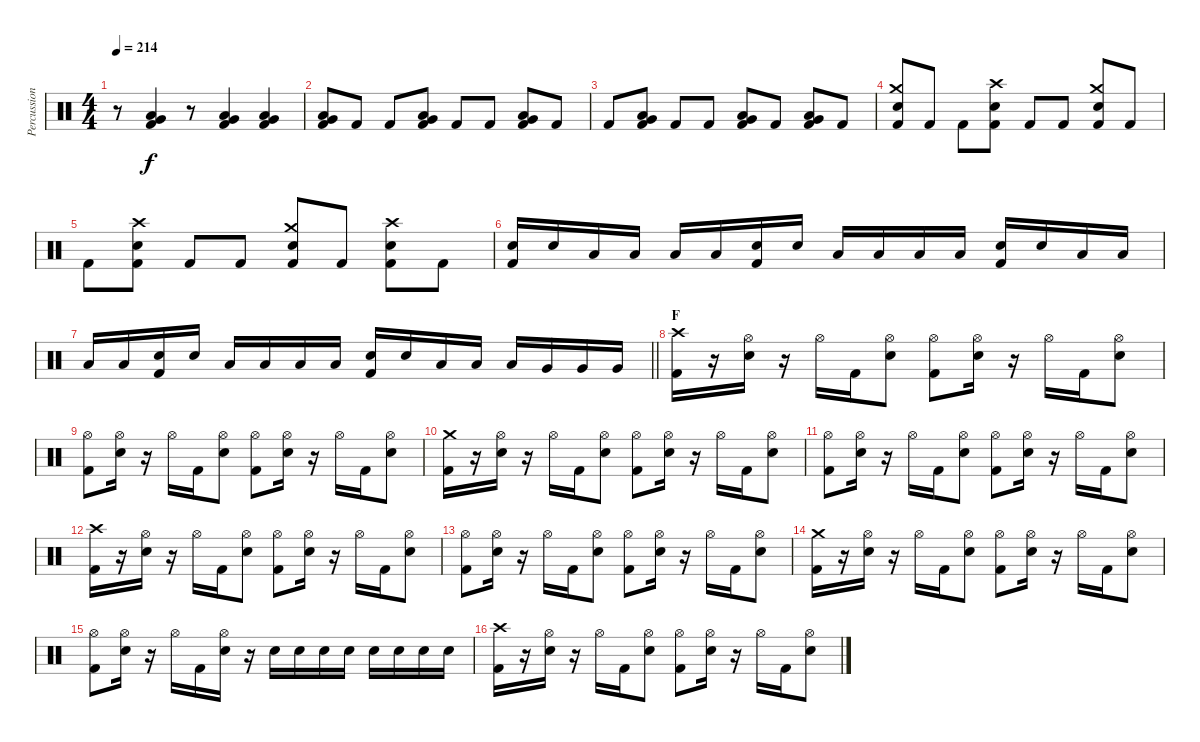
\track ("Percussion" "Percussion") {instrument percussion}
\staff {score}
\articulation defaults
\ts (4 4)
\tempo 214
\clef neutral
\ks c
r.8{dy f} ("Low Tom (hit)" "Very Low Tom (hit)" "Kick (hit) 2").4 r.8 ("Low Tom (hit)" "Very Low Tom (hit)" "Kick (hit) 2").4 ("Low Tom (hit)" "Very Low Tom (hit)" "Kick (hit) 2").4 |
("Low Tom (hit)" "Very Low Tom (hit)" "Kick (hit) 2").8 "Kick (hit) 2".8 "Kick (hit) 2".8 ("Low Tom (hit)" "Very Low Tom (hit)" "Kick (hit) 2").8 "Kick (hit) 2".8 "Kick (hit) 2".8 ("Low Tom (hit)" "Very Low Tom (hit)" "Kick (hit) 2").8 "Kick (hit) 2".8 |
"Kick (hit) 2".8 ("Low Tom (hit)" "Very Low Tom (hit)" "Kick (hit) 2").8 "Kick (hit) 2".8 "Kick (hit) 2".8 ("Low Tom (hit)" "Very Low Tom (hit)" "Kick (hit) 2").8 "Kick (hit) 2".8 ("Low Tom (hit)" "Very Low Tom (hit)" "Kick (hit) 2").8 "Kick (hit) 2".8 |
("Crash medium (hit)" "Electric Snare (hit)" "Kick (hit) 2").8 "Kick (hit) 2".8 "Kick (hit) 2".8 ("Crash high (hit)" "Electric Snare (hit)" "Kick (hit) 2").8 "Kick (hit) 2".8 "Kick (hit) 2".8 ("Crash medium (hit)" "Electric Snare (hit)" "Kick (hit) 2").8 "Kick (hit) 2".8 |
"Kick (hit) 2".8 ("Crash high (hit)" "Electric Snare (hit)" "Kick (hit) 2").8 "Kick (hit) 2".8 "Kick (hit) 2".8 ("Crash medium (hit)" "Electric Snare (hit)" "Kick (hit) 2").8 "Kick (hit) 2".8 ("Crash high (hit)" "Electric Snare (hit)" "Kick (hit) 2").8 "Kick (hit) 2".8 |
("Electric Snare (hit)" "Kick (hit) 2").16 "Electric Snare (hit)".16 "Low Tom (hit)".16 "Low Tom (hit)".16 "Low Tom (hit)".16 "Low Tom (hit)".16 ("Electric Snare (hit)" "Kick (hit) 2").16 "Electric Snare (hit)".16 "Low Tom (hit)".16 "Low Tom (hit)".16 "Low Tom (hit)".16 "Low Tom (hit)".16 ("Electric Snare (hit)" "Kick (hit) 2").16 "Electric Snare (hit)".16 "Low Tom (hit)".16 "Low Tom (hit)".16 |
\barLineRight lightlight "Low Tom (hit)".16 "Low Tom (hit)".16
("Electric Snare (hit)" "Kick (hit) 2").16 "Electric Snare (hit)".16 "Low Tom (hit)".16 "Low Tom (hit)".16 "Low Tom (hit)".16 "Low Tom (hit)".16 ("Electric Snare (hit)" "Kick (hit) 2").16 "Electric Snare (hit)".16 "Low Tom (hit)".16 "Low Tom (hit)".16 "Low Tom (hit)".16 "Very Low Tom (hit)".16 "Very Low Tom (hit)".16 "Very Low Tom (hit)".16 |
\section ("" "F")
("Crash high (hit)" "Kick (hit) 2").16 r.16 ("Electric Snare (hit)" "Hi-Hat (open)").16 r.16 "Hi-Hat (open)".16 "Kick (hit) 2".16 ("Electric Snare (hit)" "Hi-Hat (open)").8 ("Kick (hit) 2" "Hi-Hat (open)").8 ("Electric Snare (hit)" "Hi-Hat (open)").16 r.16 "Hi-Hat (open)".16 "Kick (hit) 2".16 ("Electric Snare (hit)" "Hi-Hat (open)").8 |
("Kick (hit) 2" "Hi-Hat (open)").8 ("Electric Snare (hit)" "Hi-Hat (open)").16 r.16 "Hi-Hat (open)".16 "Kick (hit) 2".16 ("Electric Snare (hit)" "Hi-Hat (open)").8 ("Kick (hit) 2" "Hi-Hat (open)").8 ("Electric Snare (hit)" "Hi-Hat (open)").16 r.16 "Hi-Hat (open)".16 "Kick (hit) 2".16 ("Electric Snare (hit)" "Hi-Hat (open)").8 |
("Kick (hit) 2" "Crash medium (hit)").16 r.16 ("Electric Snare (hit)" "Hi-Hat (open)").16 r.16 "Hi-Hat (open)".16 "Kick (hit) 2".16 ("Electric Snare (hit)" "Hi-Hat (open)").8 ("Kick (hit) 2" "Hi-Hat (open)").8 ("Electric Snare (hit)" "Hi-Hat (open)").16 r.16 "Hi-Hat (open)".16 "Kick (hit) 2".16 ("Electric Snare (hit)" "Hi-Hat (open)").8 |
("Kick (hit) 2" "Hi-Hat (open)").8 ("Electric Snare (hit)" "Hi-Hat (open)").16 r.16 "Hi-Hat (open)".16 "Kick (hit) 2".16 ("Electric Snare (hit)" "Hi-Hat (open)").8 ("Kick (hit) 2" "Hi-Hat (open)").8 ("Electric Snare (hit)" "Hi-Hat (open)").16 r.16 "Hi-Hat (open)".16 "Kick (hit) 2".16 ("Electric Snare (hit)" "Hi-Hat (open)").8 |
("Crash high (hit)" "Kick (hit) 2").16 r.16 ("Electric Snare (hit)" "Hi-Hat (open)").16 r.16 "Hi-Hat (open)".16 "Kick (hit) 2".16 ("Electric Snare (hit)" "Hi-Hat (open)").8 ("Kick (hit) 2" "Hi-Hat (open)").8 ("Electric Snare (hit)" "Hi-Hat (open)").16 r.16 "Hi-Hat (open)".16 "Kick (hit) 2".16 ("Electric Snare (hit)" "Hi-Hat (open)").8 |
("Kick (hit) 2" "Hi-Hat (open)").8 ("Electric Snare (hit)" "Hi-Hat (open)").16 r.16 "Hi-Hat (open)".16 "Kick (hit) 2".16 ("Electric Snare (hit)" "Hi-Hat (open)").8 ("Kick (hit) 2" "Hi-Hat (open)").8 ("Electric Snare (hit)" "Hi-Hat (open)").16 r.16 "Hi-Hat (open)".16 "Kick (hit) 2".16 ("Electric Snare (hit)" "Hi-Hat (open)").8 |
("Kick (hit) 2" "Crash medium (hit)").16 r.16 ("Electric Snare (hit)" "Hi-Hat (open)").16 r.16 "Hi-Hat (open)".16 "Kick (hit) 2".16 ("Electric Snare (hit)" "Hi-Hat (open)").8 ("Kick (hit) 2" "Hi-Hat (open)").8 ("Electric Snare (hit)" "Hi-Hat (open)").16 r.16 "Hi-Hat (open)".16 "Kick (hit) 2".16 ("Electric Snare (hit)" "Hi-Hat (open)").8 |
("Kick (hit) 2" "Hi-Hat (open)").8 ("Electric Snare (hit)" "Hi-Hat (open)").16 r.16 "Hi-Hat (open)".16 "Kick (hit) 2".16 ("Electric Snare (hit)" "Hi-Hat (open)").16 r.16 "Electric Snare (hit)".16 "Electric Snare (hit)".16 "Electric Snare (hit)".16 "Electric Snare (hit)".16 "Electric Snare (hit)".16 "Electric Snare (hit)".16 "Electric Snare (hit)".16 "Electric Snare (hit)".16 |
("Crash high (hit)" "Kick (hit) 2").16 r.16 ("Electric Snare (hit)" "Hi-Hat (open)").16 r.16 "Hi-Hat (open)".16 "Kick (hit) 2".16 ("Electric Snare (hit)" "Hi-Hat (open)").8 ("Kick (hit) 2" "Hi-Hat (open)").8 ("Electric Snare (hit)" "Hi-Hat (open)").16 r.16 "Hi-Hat (open)".16 "Kick (hit) 2".16 ("Electric Snare (hit)" "Hi-Hat (open)").8
